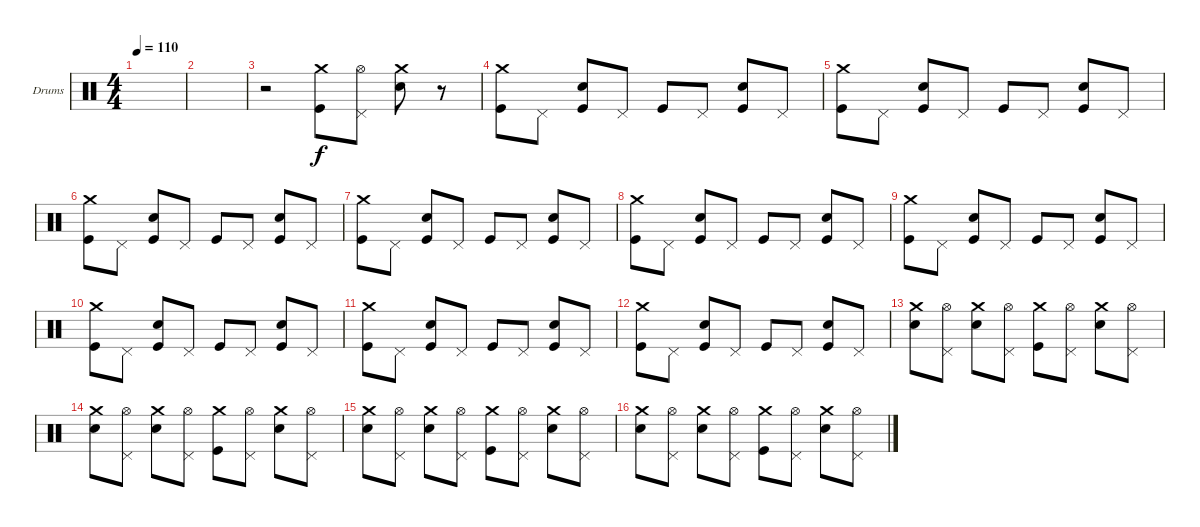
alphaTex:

\defaultSystemsLayout 4
\bracketExtendMode groupsimilarinstruments
\firstSystemTrackNameOrientation horizontal
\otherSystemsTrackNameOrientation horizontal
\track ("Е. Кулаков" "Drums") {instrument percussion}
\staff {score}
\articulation defaults
\ts (4 4)
\tempo 110
\clef neutral
\ks c
|
|
r.2 ("Kick (hit)" "Crash medium (hit)").8 ("Pedal Hi-Hat (hit)" "Hi-Hat (open)").8 ("Snare (hit) 2" "Crash medium (hit)").8 r.8 |
("Crash medium (hit)" "Kick (hit)").8 "Pedal Hi-Hat (hit)".8 ("Snare (hit) 2" "Kick (hit)").8 "Pedal Hi-Hat (hit)".8 "Kick (hit)".8 "Pedal Hi-Hat (hit)".8 ("Snare (hit) 2" "Kick (hit)").8 "Pedal Hi-Hat (hit)".8 |
("Crash medium (hit)" "Kick (hit)").8 "Pedal Hi-Hat (hit)".8 ("Snare (hit) 2" "Kick (hit)").8 "Pedal Hi-Hat (hit)".8 "Kick (hit)".8 "Pedal Hi-Hat (hit)".8 ("Snare (hit) 2" "Kick (hit)").8 "Pedal Hi-Hat (hit)".8 |
("Crash medium (hit)" "Kick (hit)").8 "Pedal Hi-Hat (hit)".8 ("Snare (hit) 2" "Kick (hit)").8 "Pedal Hi-Hat (hit)".8 "Kick (hit)".8 "Pedal Hi-Hat (hit)".8 ("Snare (hit) 2" "Kick (hit)").8 "Pedal Hi-Hat (hit)".8 |
("Crash medium (hit)" "Kick (hit)").8 "Pedal Hi-Hat (hit)".8 ("Snare (hit) 2" "Kick (hit)").8 "Pedal Hi-Hat (hit)".8 "Kick (hit)".8 "Pedal Hi-Hat (hit)".8 ("Snare (hit) 2" "Kick (hit)").8 "Pedal Hi-Hat (hit)".8 |
("Crash medium (hit)" "Kick (hit)").8 "Pedal Hi-Hat (hit)".8 ("Snare (hit) 2" "Kick (hit)").8 "Pedal Hi-Hat (hit)".8 "Kick (hit)".8 "Pedal Hi-Hat (hit)".8 ("Snare (hit) 2" "Kick (hit)").8 "Pedal Hi-Hat (hit)".8 |
("Crash medium (hit)" "Kick (hit)").8 "Pedal Hi-Hat (hit)".8 ("Snare (hit) 2" "Kick (hit)").8 "Pedal Hi-Hat (hit)".8 "Kick (hit)".8 "Pedal Hi-Hat (hit)".8 ("Snare (hit) 2" "Kick (hit)").8 "Pedal Hi-Hat (hit)".8 |
("Crash medium (hit)" "Kick (hit)").8 "Pedal Hi-Hat (hit)".8 ("Snare (hit) 2" "Kick (hit)").8 "Pedal Hi-Hat (hit)".8 "Kick (hit)".8 "Pedal Hi-Hat (hit)".8 ("Snare (hit) 2" "Kick (hit)").8 "Pedal Hi-Hat (hit)".8 |
("Crash medium (hit)" "Kick (hit)").8 "Pedal Hi-Hat (hit)".8 ("Snare (hit) 2" "Kick (hit)").8 "Pedal Hi-Hat (hit)".8 "Kick (hit)".8 "Pedal Hi-Hat (hit)".8 ("Snare (hit) 2" "Kick (hit)").8 "Pedal Hi-Hat (hit)".8 |
("Crash medium (hit)" "Kick (hit)").8 "Pedal Hi-Hat (hit)".8 ("Snare (hit) 2" "Kick (hit)").8 "Pedal Hi-Hat (hit)".8 "Kick (hit)".8 "Pedal Hi-Hat (hit)".8 ("Snare (hit) 2" "Kick (hit)").8 "Pedal Hi-Hat (hit)".8 |
("Snare (hit) 2" "Crash medium (hit)").8 ("Pedal Hi-Hat (hit)" "Hi-Hat (open)").8 ("Snare (hit) 2" "Crash medium (hit)").8 ("Pedal Hi-Hat (hit)" "Hi-Hat (open)").8 ("Kick (hit)" "Crash medium (hit)").8 ("Pedal Hi-Hat (hit)" "Hi-Hat (open)").8 ("Snare (hit) 2" "Crash medium (hit)").8 ("Pedal Hi-Hat (hit)" "Hi-Hat (open)").8 |
("Snare (hit) 2" "Crash medium (hit)").8 ("Pedal Hi-Hat (hit)" "Hi-Hat (open)").8 ("Snare (hit) 2" "Crash medium (hit)").8 ("Pedal Hi-Hat (hit)" "Hi-Hat (open)").8 ("Kick (hit)" "Crash medium (hit)").8 ("Pedal Hi-Hat (hit)" "Hi-Hat (open)").8 ("Snare (hit) 2" "Crash medium (hit)").8 ("Pedal Hi-Hat (hit)" "Hi-Hat (open)").8 |
("Snare (hit) 2" "Crash medium (hit)").8 ("Pedal Hi-Hat (hit)" "Hi-Hat (open)").8 ("Snare (hit) 2" "Crash medium (hit)").8 ("Pedal Hi-Hat (hit)" "Hi-Hat (open)").8 ("Kick (hit)" "Crash medium (hit)").8 ("Pedal Hi-Hat (hit)" "Hi-Hat (open)").8 ("Snare (hit) 2" "Crash medium (hit)").8 ("Pedal Hi-Hat (hit)" "Hi-Hat (open)").8 |
("Snare (hit) 2" "Crash medium (hit)").8 ("Pedal Hi-Hat (hit)" "Hi-Hat (open)").8 ("Snare (hit) 2" "Crash medium (hit)").8 ("Pedal Hi-Hat (hit)" "Hi-Hat (open)").8 ("Kick (hit)" "Crash medium (hit)").8 ("Pedal Hi-Hat (hit)" "Hi-Hat (open)").8 ("Snare (hit) 2" "Crash medium (hit)").8 ("Pedal Hi-Hat (hit)" "Hi-Hat (open)").8
